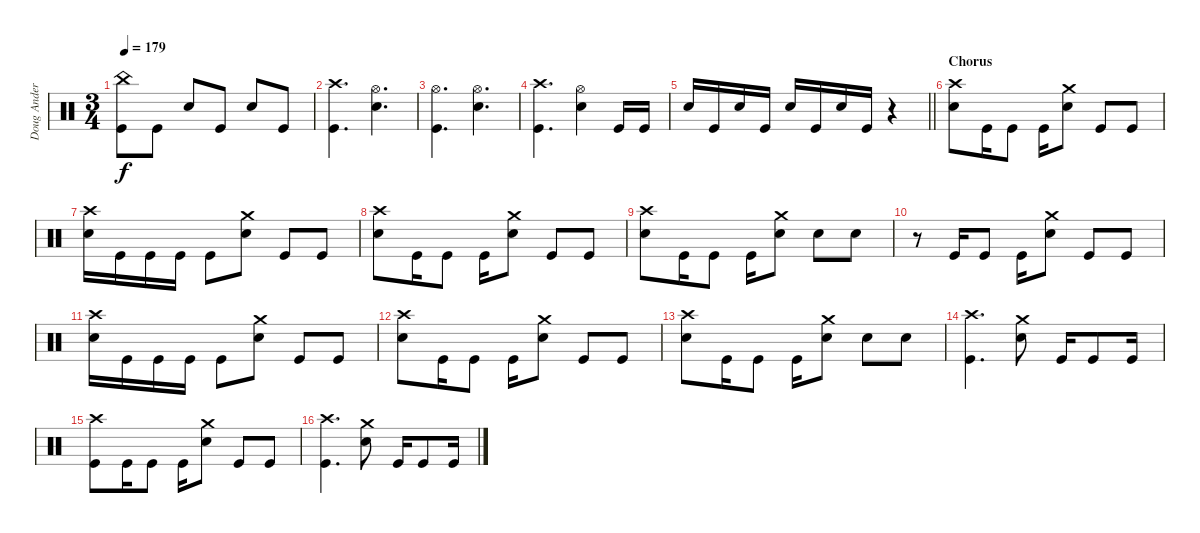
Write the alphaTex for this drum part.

\track ("Doug Anderson" "Doug Ander") {instrument percussion}
\staff {score}
\articulation defaults
\ts (3 4)
\tempo 179
\clef neutral
\ks c
("Kick (hit)" "China (hit)").8{dy f} "Kick (hit)".8 "Snare (hit) 2".8 "Kick (hit)".8 "Snare (hit) 2".8 "Kick (hit)".8 |
("Kick (hit)" "Crash high (hit)").4{d} ("Snare (hit) 2" "Hi-Hat (open)").4{d} |
("Kick (hit)" "Hi-Hat (open)").4{d} ("Snare (hit) 2" "Hi-Hat (open)").4{d} |
("Kick (hit)" "Crash high (hit)").4{d} ("Snare (hit) 2" "Hi-Hat (open)").4 "Kick (hit)".16 "Kick (hit)".16 |
\barLineRight lightlight "Snare (hit) 2".16 "Kick (hit)".16 "Snare (hit) 2".16 "Kick (hit)".16 "Snare (hit) 2".16 "Kick (hit)".16 "Snare (hit) 2".16 "Kick (hit)".16
r.4 |
\section ("" "Chorus")
("Snare (hit) 2" "Crash high (hit)").8 "Kick (hit)".16 "Kick (hit)".8 "Kick (hit)".16 ("Snare (hit) 2" "Crash medium (hit)").8 "Kick (hit)".8 "Kick (hit)".8 |
("Snare (hit) 2" "Crash high (hit)").16 "Kick (hit)".16 "Kick (hit)".16 "Kick (hit)".16 "Kick (hit)".8 ("Snare (hit) 2" "Crash medium (hit)").8 "Kick (hit)".8 "Kick (hit)".8 |
("Snare (hit) 2" "Crash high (hit)").8 "Kick (hit)".16 "Kick (hit)".8 "Kick (hit)".16 ("Snare (hit) 2" "Crash medium (hit)").8 "Kick (hit)".8 "Kick (hit)".8 |
("Snare (hit) 2" "Crash high (hit)").8 "Kick (hit)".16 "Kick (hit)".8 "Kick (hit)".16 ("Snare (hit) 2" "Crash medium (hit)").8 "Snare (hit) 2".8 "Snare (hit) 2".8 |
r.8 "Kick (hit)".16 "Kick (hit)".8 "Kick (hit)".16 ("Snare (hit) 2" "Crash medium (hit)").8 "Kick (hit)".8 "Kick (hit)".8 |
("Snare (hit) 2" "Crash high (hit)").16 "Kick (hit)".16 "Kick (hit)".16 "Kick (hit)".16 "Kick (hit)".8 ("Snare (hit) 2" "Crash medium (hit)").8 "Kick (hit)".8 "Kick (hit)".8 |
("Snare (hit) 2" "Crash high (hit)").8 "Kick (hit)".16 "Kick (hit)".8 "Kick (hit)".16 ("Snare (hit) 2" "Crash medium (hit)").8 "Kick (hit)".8 "Kick (hit)".8 |
("Snare (hit) 2" "Crash high (hit)").8 "Kick (hit)".16 "Kick (hit)".8 "Kick (hit)".16 ("Snare (hit) 2" "Crash medium (hit)").8 "Snare (hit) 2".8 "Snare (hit) 2".8 |
("Kick (hit)" "Crash high (hit)").4{d} ("Snare (hit) 2" "Crash medium (hit)").8 "Kick (hit)".16 "Kick (hit)".8 "Kick (hit)".16 |
("Kick (hit)" "Crash high (hit)").8 "Kick (hit)".16 "Kick (hit)".8 "Kick (hit)".16 ("Snare (hit) 2" "Crash medium (hit)").8 "Kick (hit)".8 "Kick (hit)".8 |
("Kick (hit)" "Crash high (hit)").4{d} ("Snare (hit) 2" "Crash medium (hit)").8 "Kick (hit)".16 "Kick (hit)".8 "Kick (hit)".16
